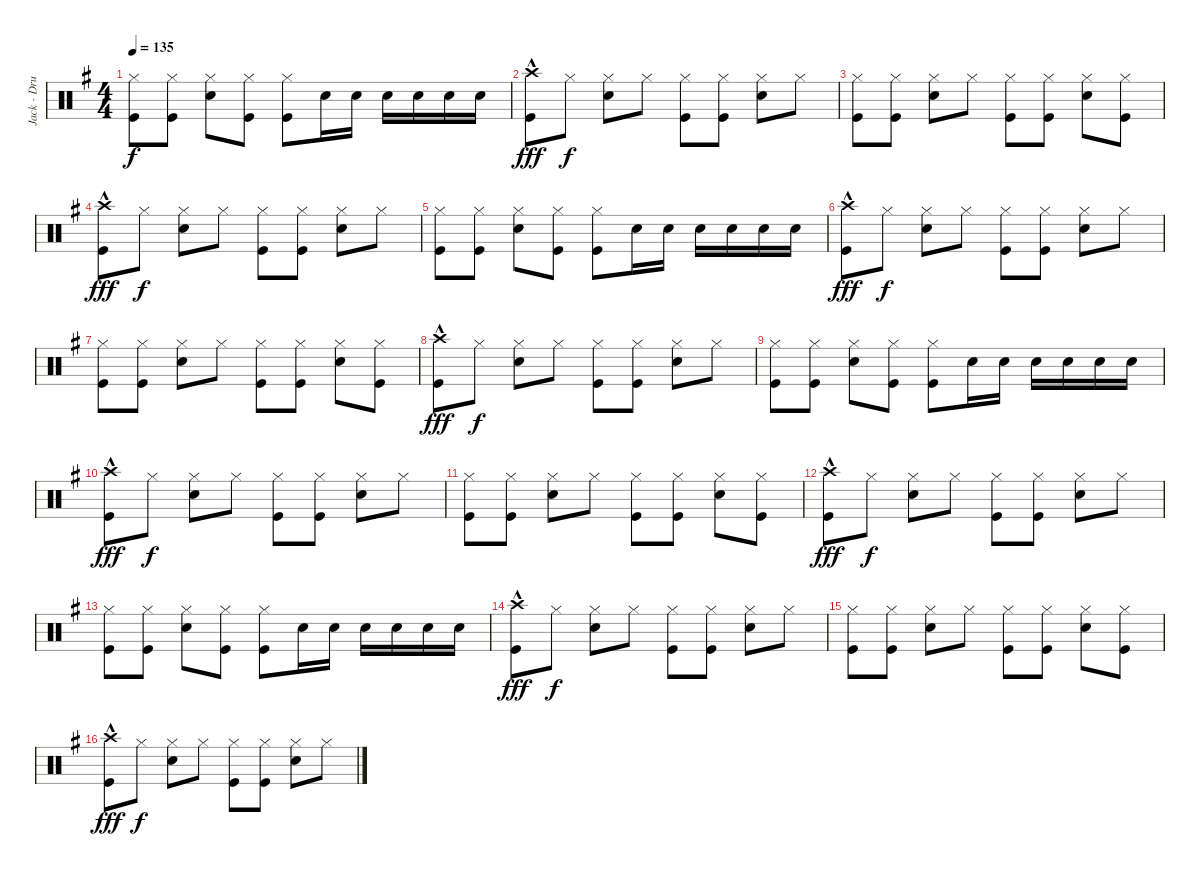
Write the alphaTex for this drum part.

\track ("Jack - Drums" "Jack - Dru") {instrument percussion}
\staff {score}
\articulation defaults
\ts (4 4)
\tempo 135
\clef neutral
\ks g
("Hi-Hat (closed)" "Kick (hit)").8{dy f} ("Hi-Hat (closed)" "Kick (hit)").8 ("Hi-Hat (closed)" "Snare (hit) 2").8 ("Hi-Hat (closed)" "Kick (hit)").8 ("Hi-Hat (closed)" "Kick (hit)").8 "Snare (hit) 2".16 "Snare (hit) 2".16 "Snare (hit) 2".16 "Snare (hit) 2".16 "Snare (hit) 2".16 "Snare (hit) 2".16 |
("Crash high (hit)"{hac} "Kick (hit)").8{dy fff} "Hi-Hat (closed)".8{dy f} ("Hi-Hat (closed)" "Snare (hit) 2").8 "Hi-Hat (closed)".8 ("Hi-Hat (closed)" "Kick (hit)").8 ("Hi-Hat (closed)" "Kick (hit)").8 ("Hi-Hat (closed)" "Snare (hit) 2").8 "Hi-Hat (closed)".8 |
("Hi-Hat (closed)" "Kick (hit)").8 ("Hi-Hat (closed)" "Kick (hit)").8 ("Hi-Hat (closed)" "Snare (hit) 2").8 "Hi-Hat (closed)".8 ("Hi-Hat (closed)" "Kick (hit)").8 ("Hi-Hat (closed)" "Kick (hit)").8 ("Hi-Hat (closed)" "Snare (hit) 2").8 ("Hi-Hat (closed)" "Kick (hit)").8 |
("Crash high (hit)"{hac} "Kick (hit)").8{dy fff} "Hi-Hat (closed)".8{dy f} ("Hi-Hat (closed)" "Snare (hit) 2").8 "Hi-Hat (closed)".8 ("Hi-Hat (closed)" "Kick (hit)").8 ("Hi-Hat (closed)" "Kick (hit)").8 ("Hi-Hat (closed)" "Snare (hit) 2").8 "Hi-Hat (closed)".8 |
("Hi-Hat (closed)" "Kick (hit)").8 ("Hi-Hat (closed)" "Kick (hit)").8 ("Hi-Hat (closed)" "Snare (hit) 2").8 ("Hi-Hat (closed)" "Kick (hit)").8 ("Hi-Hat (closed)" "Kick (hit)").8 "Snare (hit) 2".16 "Snare (hit) 2".16 "Snare (hit) 2".16 "Snare (hit) 2".16 "Snare (hit) 2".16 "Snare (hit) 2".16 |
("Crash high (hit)"{hac} "Kick (hit)").8{dy fff} "Hi-Hat (closed)".8{dy f} ("Hi-Hat (closed)" "Snare (hit) 2").8 "Hi-Hat (closed)".8 ("Hi-Hat (closed)" "Kick (hit)").8 ("Hi-Hat (closed)" "Kick (hit)").8 ("Hi-Hat (closed)" "Snare (hit) 2").8 "Hi-Hat (closed)".8 |
("Hi-Hat (closed)" "Kick (hit)").8 ("Hi-Hat (closed)" "Kick (hit)").8 ("Hi-Hat (closed)" "Snare (hit) 2").8 "Hi-Hat (closed)".8 ("Hi-Hat (closed)" "Kick (hit)").8 ("Hi-Hat (closed)" "Kick (hit)").8 ("Hi-Hat (closed)" "Snare (hit) 2").8 ("Hi-Hat (closed)" "Kick (hit)").8 |
("Crash high (hit)"{hac} "Kick (hit)").8{dy fff} "Hi-Hat (closed)".8{dy f} ("Hi-Hat (closed)" "Snare (hit) 2").8 "Hi-Hat (closed)".8 ("Hi-Hat (closed)" "Kick (hit)").8 ("Hi-Hat (closed)" "Kick (hit)").8 ("Hi-Hat (closed)" "Snare (hit) 2").8 "Hi-Hat (closed)".8 |
("Hi-Hat (closed)" "Kick (hit)").8 ("Hi-Hat (closed)" "Kick (hit)").8 ("Hi-Hat (closed)" "Snare (hit) 2").8 ("Hi-Hat (closed)" "Kick (hit)").8 ("Hi-Hat (closed)" "Kick (hit)").8 "Snare (hit) 2".16 "Snare (hit) 2".16 "Snare (hit) 2".16 "Snare (hit) 2".16 "Snare (hit) 2".16 "Snare (hit) 2".16 |
("Crash high (hit)"{hac} "Kick (hit)").8{dy fff} "Hi-Hat (closed)".8{dy f} ("Hi-Hat (closed)" "Snare (hit) 2").8 "Hi-Hat (closed)".8 ("Hi-Hat (closed)" "Kick (hit)").8 ("Hi-Hat (closed)" "Kick (hit)").8 ("Hi-Hat (closed)" "Snare (hit) 2").8 "Hi-Hat (closed)".8 |
("Hi-Hat (closed)" "Kick (hit)").8 ("Hi-Hat (closed)" "Kick (hit)").8 ("Hi-Hat (closed)" "Snare (hit) 2").8 "Hi-Hat (closed)".8 ("Hi-Hat (closed)" "Kick (hit)").8 ("Hi-Hat (closed)" "Kick (hit)").8 ("Hi-Hat (closed)" "Snare (hit) 2").8 ("Hi-Hat (closed)" "Kick (hit)").8 |
("Crash high (hit)"{hac} "Kick (hit)").8{dy fff} "Hi-Hat (closed)".8{dy f} ("Hi-Hat (closed)" "Snare (hit) 2").8 "Hi-Hat (closed)".8 ("Hi-Hat (closed)" "Kick (hit)").8 ("Hi-Hat (closed)" "Kick (hit)").8 ("Hi-Hat (closed)" "Snare (hit) 2").8 "Hi-Hat (closed)".8 |
("Hi-Hat (closed)" "Kick (hit)").8 ("Hi-Hat (closed)" "Kick (hit)").8 ("Hi-Hat (closed)" "Snare (hit) 2").8 ("Hi-Hat (closed)" "Kick (hit)").8 ("Hi-Hat (closed)" "Kick (hit)").8 "Snare (hit) 2".16 "Snare (hit) 2".16 "Snare (hit) 2".16 "Snare (hit) 2".16 "Snare (hit) 2".16 "Snare (hit) 2".16 |
("Crash high (hit)"{hac} "Kick (hit)").8{dy fff volume 10} "Hi-Hat (closed)".8{dy f} ("Hi-Hat (closed)" "Snare (hit) 2").8 "Hi-Hat (closed)".8 ("Hi-Hat (closed)" "Kick (hit)").8 ("Hi-Hat (closed)" "Kick (hit)").8 ("Hi-Hat (closed)" "Snare (hit) 2").8 "Hi-Hat (closed)".8 |
("Hi-Hat (closed)" "Kick (hit)").8 ("Hi-Hat (closed)" "Kick (hit)").8 ("Hi-Hat (closed)" "Snare (hit) 2").8 "Hi-Hat (closed)".8 ("Hi-Hat (closed)" "Kick (hit)").8 ("Hi-Hat (closed)" "Kick (hit)").8 ("Hi-Hat (closed)" "Snare (hit) 2").8 ("Hi-Hat (closed)" "Kick (hit)").8 |
("Crash high (hit)"{hac} "Kick (hit)").8{dy fff} "Hi-Hat (closed)".8{dy f} ("Hi-Hat (closed)" "Snare (hit) 2").8 "Hi-Hat (closed)".8 ("Hi-Hat (closed)" "Kick (hit)").8 ("Hi-Hat (closed)" "Kick (hit)").8 ("Hi-Hat (closed)" "Snare (hit) 2").8 "Hi-Hat (closed)".8
